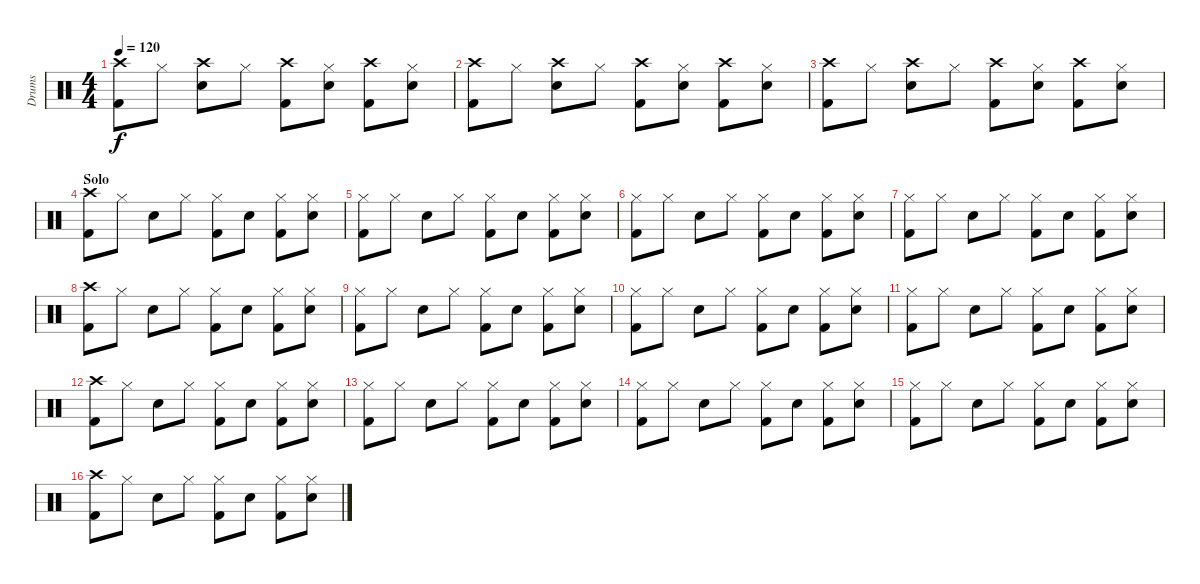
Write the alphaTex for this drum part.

\track ("Drums" "Drums") {instrument percussion}
\staff {score}
\articulation defaults
\ts (4 4)
\tempo 120
\clef neutral
\ks c
("Kick (hit) 2" "Crash high (hit)").8{dy f} "Hi-Hat (closed)".8 ("Snare (hit) 2" "Crash high (hit)").8 "Hi-Hat (closed)".8 ("Kick (hit) 2" "Crash high (hit)").8 ("Snare (hit) 2" "Hi-Hat (closed)").8 ("Kick (hit) 2" "Crash high (hit)").8 ("Snare (hit) 2" "Hi-Hat (closed)").8 |
("Kick (hit) 2" "Crash high (hit)").8 "Hi-Hat (closed)".8 ("Snare (hit) 2" "Crash high (hit)").8 "Hi-Hat (closed)".8 ("Kick (hit) 2" "Crash high (hit)").8 ("Snare (hit) 2" "Hi-Hat (closed)").8 ("Kick (hit) 2" "Crash high (hit)").8 ("Snare (hit) 2" "Hi-Hat (closed)").8 |
("Kick (hit) 2" "Crash high (hit)").8 "Hi-Hat (closed)".8 ("Snare (hit) 2" "Crash high (hit)").8 "Hi-Hat (closed)".8 ("Kick (hit) 2" "Crash high (hit)").8 ("Snare (hit) 2" "Hi-Hat (closed)").8 ("Kick (hit) 2" "Crash high (hit)").8 ("Snare (hit) 2" "Hi-Hat (closed)").8 |
\section ("" "Solo")
("Kick (hit) 2" "Crash high (hit)").8 "Hi-Hat (closed)".8 "Snare (hit) 2".8 "Hi-Hat (closed)".8 ("Kick (hit) 2" "Hi-Hat (closed)").8 "Snare (hit) 2".8 ("Kick (hit) 2" "Hi-Hat (closed)").8 ("Snare (hit) 2" "Hi-Hat (closed)").8 |
("Kick (hit) 2" "Hi-Hat (closed)").8 "Hi-Hat (closed)".8 "Snare (hit) 2".8 "Hi-Hat (closed)".8 ("Kick (hit) 2" "Hi-Hat (closed)").8 "Snare (hit) 2".8 ("Kick (hit) 2" "Hi-Hat (closed)").8 ("Snare (hit) 2" "Hi-Hat (closed)").8 |
("Kick (hit) 2" "Hi-Hat (closed)").8 "Hi-Hat (closed)".8 "Snare (hit) 2".8 "Hi-Hat (closed)".8 ("Kick (hit) 2" "Hi-Hat (closed)").8 "Snare (hit) 2".8 ("Kick (hit) 2" "Hi-Hat (closed)").8 ("Snare (hit) 2" "Hi-Hat (closed)").8 |
("Kick (hit) 2" "Hi-Hat (closed)").8 "Hi-Hat (closed)".8 "Snare (hit) 2".8 "Hi-Hat (closed)".8 ("Kick (hit) 2" "Hi-Hat (closed)").8 "Snare (hit) 2".8 ("Kick (hit) 2" "Hi-Hat (closed)").8 ("Snare (hit) 2" "Hi-Hat (closed)").8 |
("Kick (hit) 2" "Crash high (hit)").8 "Hi-Hat (closed)".8 "Snare (hit) 2".8 "Hi-Hat (closed)".8 ("Kick (hit) 2" "Hi-Hat (closed)").8 "Snare (hit) 2".8 ("Kick (hit) 2" "Hi-Hat (closed)").8 ("Snare (hit) 2" "Hi-Hat (closed)").8 |
("Kick (hit) 2" "Hi-Hat (closed)").8 "Hi-Hat (closed)".8 "Snare (hit) 2".8 "Hi-Hat (closed)".8 ("Kick (hit) 2" "Hi-Hat (closed)").8 "Snare (hit) 2".8 ("Kick (hit) 2" "Hi-Hat (closed)").8 ("Snare (hit) 2" "Hi-Hat (closed)").8 |
("Kick (hit) 2" "Hi-Hat (closed)").8 "Hi-Hat (closed)".8 "Snare (hit) 2".8 "Hi-Hat (closed)".8 ("Kick (hit) 2" "Hi-Hat (closed)").8 "Snare (hit) 2".8 ("Kick (hit) 2" "Hi-Hat (closed)").8 ("Snare (hit) 2" "Hi-Hat (closed)").8 |
("Kick (hit) 2" "Hi-Hat (closed)").8 "Hi-Hat (closed)".8 "Snare (hit) 2".8 "Hi-Hat (closed)".8 ("Kick (hit) 2" "Hi-Hat (closed)").8 "Snare (hit) 2".8 ("Kick (hit) 2" "Hi-Hat (closed)").8 ("Snare (hit) 2" "Hi-Hat (closed)").8 |
("Kick (hit) 2" "Crash high (hit)").8 "Hi-Hat (closed)".8 "Snare (hit) 2".8 "Hi-Hat (closed)".8 ("Kick (hit) 2" "Hi-Hat (closed)").8 "Snare (hit) 2".8 ("Kick (hit) 2" "Hi-Hat (closed)").8 ("Snare (hit) 2" "Hi-Hat (closed)").8 |
("Kick (hit) 2" "Hi-Hat (closed)").8 "Hi-Hat (closed)".8 "Snare (hit) 2".8 "Hi-Hat (closed)".8 ("Kick (hit) 2" "Hi-Hat (closed)").8 "Snare (hit) 2".8 ("Kick (hit) 2" "Hi-Hat (closed)").8 ("Snare (hit) 2" "Hi-Hat (closed)").8 |
("Kick (hit) 2" "Hi-Hat (closed)").8 "Hi-Hat (closed)".8 "Snare (hit) 2".8 "Hi-Hat (closed)".8 ("Kick (hit) 2" "Hi-Hat (closed)").8 "Snare (hit) 2".8 ("Kick (hit) 2" "Hi-Hat (closed)").8 ("Snare (hit) 2" "Hi-Hat (closed)").8 |
("Kick (hit) 2" "Hi-Hat (closed)").8 "Hi-Hat (closed)".8 "Snare (hit) 2".8 "Hi-Hat (closed)".8 ("Kick (hit) 2" "Hi-Hat (closed)").8 "Snare (hit) 2".8 ("Kick (hit) 2" "Hi-Hat (closed)").8 ("Snare (hit) 2" "Hi-Hat (closed)").8 |
("Kick (hit) 2" "Crash high (hit)").8 "Hi-Hat (closed)".8 "Snare (hit) 2".8 "Hi-Hat (closed)".8 ("Kick (hit) 2" "Hi-Hat (closed)").8 "Snare (hit) 2".8 ("Kick (hit) 2" "Hi-Hat (closed)").8 ("Snare (hit) 2" "Hi-Hat (closed)").8
